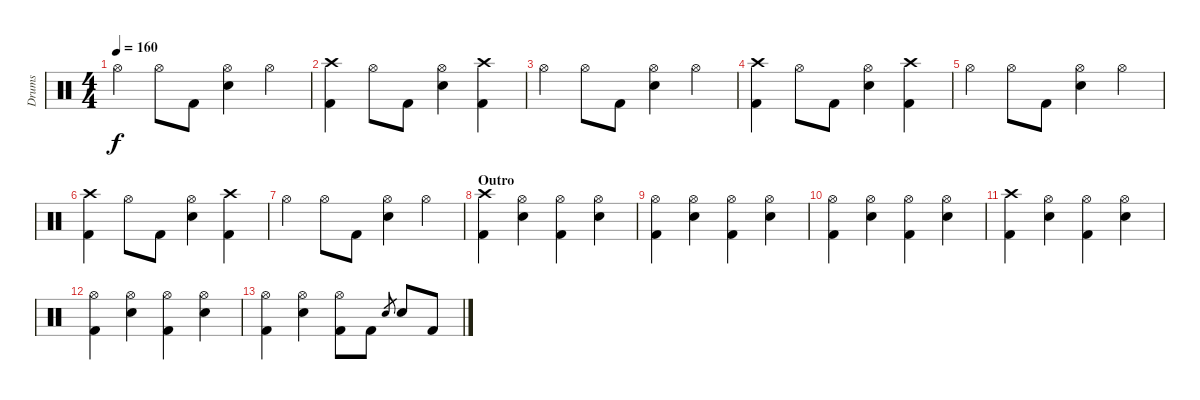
\track ("Drums" "Drums") {instrument percussion}
\staff {score}
\articulation defaults
\ts (4 4)
\tempo 160
\clef neutral
\ks c "Hi-Hat (open)".4{dy f} "Hi-Hat (open)".8 "Kick (hit) 2".8
("Hi-Hat (open)" "Electric Snare (hit)").4 "Hi-Hat (open)".4 |
("Crash high (hit)" "Kick (hit) 2").4 "Hi-Hat (open)".8 "Kick (hit) 2".8 ("Hi-Hat (open)" "Electric Snare (hit)").4 ("Crash high (hit)" "Kick (hit) 2").4 |
"Hi-Hat (open)".4 "Hi-Hat (open)".8 "Kick (hit) 2".8 ("Hi-Hat (open)" "Electric Snare (hit)").4 "Hi-Hat (open)".4 |
("Crash high (hit)" "Kick (hit) 2").4 "Hi-Hat (open)".8 "Kick (hit) 2".8 ("Hi-Hat (open)" "Electric Snare (hit)").4 ("Crash high (hit)" "Kick (hit) 2").4 |
"Hi-Hat (open)".4 "Hi-Hat (open)".8 "Kick (hit) 2".8 ("Hi-Hat (open)" "Electric Snare (hit)").4 "Hi-Hat (open)".4 |
("Crash high (hit)" "Kick (hit) 2").4 "Hi-Hat (open)".8 "Kick (hit) 2".8 ("Hi-Hat (open)" "Electric Snare (hit)").4 ("Crash high (hit)" "Kick (hit) 2").4 |
"Hi-Hat (open)".4 "Hi-Hat (open)".8 "Kick (hit) 2".8 ("Hi-Hat (open)" "Electric Snare (hit)").4 "Hi-Hat (open)".4 |
\section ("" "Outro")
("Crash high (hit)" "Kick (hit) 2").4 ("Hi-Hat (open)" "Electric Snare (hit)").4 ("Hi-Hat (open)" "Kick (hit) 2").4 ("Hi-Hat (open)" "Electric Snare (hit)").4 |
("Hi-Hat (open)" "Kick (hit) 2").4 ("Hi-Hat (open)" "Electric Snare (hit)").4 ("Hi-Hat (open)" "Kick (hit) 2").4 ("Hi-Hat (open)" "Electric Snare (hit)").4 |
("Hi-Hat (open)" "Kick (hit) 2").4 ("Hi-Hat (open)" "Electric Snare (hit)").4 ("Hi-Hat (open)" "Kick (hit) 2").4 ("Hi-Hat (open)" "Electric Snare (hit)").4 |
("Crash high (hit)" "Kick (hit) 2").4 ("Hi-Hat (open)" "Electric Snare (hit)").4 ("Hi-Hat (open)" "Kick (hit) 2").4 ("Hi-Hat (open)" "Electric Snare (hit)").4 |
("Hi-Hat (open)" "Kick (hit) 2").4 ("Hi-Hat (open)" "Electric Snare (hit)").4 ("Hi-Hat (open)" "Kick (hit) 2").4 ("Hi-Hat (open)" "Electric Snare (hit)").4 |
("Hi-Hat (open)" "Kick (hit) 2").4 ("Hi-Hat (open)" "Electric Snare (hit)").4 ("Hi-Hat (open)" "Kick (hit) 2").8 "Kick (hit) 2".8 "Electric Snare (hit)".8{gr} "Electric Snare (hit)".8 "Kick (hit) 2".8
